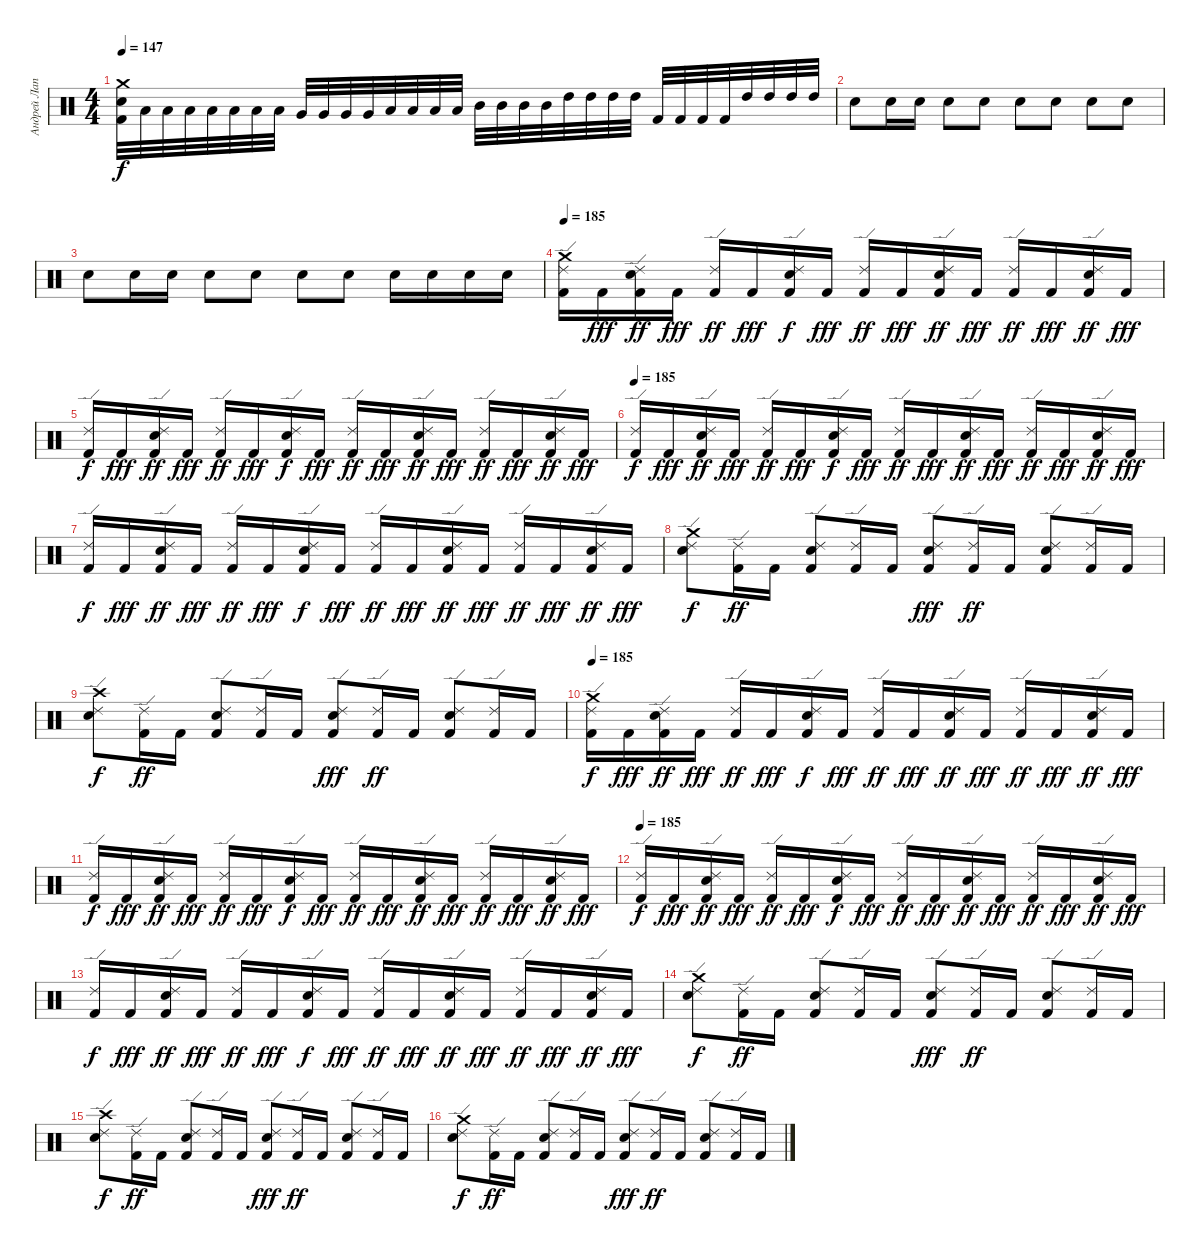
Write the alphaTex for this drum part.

\track ("Андрей Лаптев" "Андрей Лап") {instrument percussion}
\staff {score}
\articulation defaults
\ts (4 4)
\tempo 147
\clef neutral
\ks c
("Crash medium (hit)" "Electric Snare (hit)" "Kick (hit) 2").32{dy f} "Low Floor Tom (hit)".32 "Low Floor Tom (hit)".32 "Low Floor Tom (hit)".32 "Low Floor Tom (hit)".32 "Low Floor Tom (hit)".32 "Low Floor Tom (hit)".32 "Low Floor Tom (hit)".32 "Very Low Tom (hit)".32 "Very Low Tom (hit)".32 "Very Low Tom (hit)".32 "Very Low Tom (hit)".32 "Low Tom (hit)".32 "Low Tom (hit)".32 "Low Tom (hit)".32 "Low Tom (hit)".32 "Mid Tom (hit)".32 "Mid Tom (hit)".32 "Mid Tom (hit)".32 "Mid Tom (hit)".32 "High Tom (hit)".32 "High Tom (hit)".32 "High Tom (hit)".32 "High Tom (hit)".32 "Kick (hit) 2".32 "Kick (hit) 2".32 "Kick (hit) 2".32 "Kick (hit) 2".32 "High Tom (hit)".32 "High Tom (hit)".32 "High Tom (hit)".32 "High Tom (hit)".32 |
"Electric Snare (hit)".8 "Electric Snare (hit)".16 "Electric Snare (hit)".16 "Electric Snare (hit)".8 "Electric Snare (hit)".8 "Electric Snare (hit)".8 "Electric Snare (hit)".8 "Electric Snare (hit)".8 "Electric Snare (hit)".8 |
"Electric Snare (hit)".8 "Electric Snare (hit)".16 "Electric Snare (hit)".16 "Electric Snare (hit)".8 "Electric Snare (hit)".8 "Electric Snare (hit)".8 "Electric Snare (hit)".8 "Electric Snare (hit)".16 "Electric Snare (hit)".16 "Electric Snare (hit)".16 "Electric Snare (hit)".16 |
\tempo 185
("Kick (hit) 2" "Crash medium (hit)" "Ride (edge) 2").16 "Kick (hit) 2".16{dy fff} ("Kick (hit) 2" "Electric Snare (hit)" "Ride (edge) 2").16{dy ff} "Kick (hit) 2".16{dy fff} ("Kick (hit) 2" "Ride (edge) 2").16{dy ff} "Kick (hit) 2".16{dy fff} ("Kick (hit) 2" "Electric Snare (hit)" "Ride (edge) 2").16{dy f} "Kick (hit) 2".16{dy fff} ("Kick (hit) 2" "Ride (edge) 2").16{dy ff} "Kick (hit) 2".16{dy fff} ("Kick (hit) 2" "Electric Snare (hit)" "Ride (edge) 2").16{dy ff} "Kick (hit) 2".16{dy fff} ("Kick (hit) 2" "Ride (edge) 2").16{dy ff} "Kick (hit) 2".16{dy fff} ("Kick (hit) 2" "Electric Snare (hit)" "Ride (edge) 2").16{dy ff} "Kick (hit) 2".16{dy fff} |
("Kick (hit) 2" "Ride (edge) 2").16{dy f} "Kick (hit) 2".16{dy fff} ("Kick (hit) 2" "Electric Snare (hit)" "Ride (edge) 2").16{dy ff} "Kick (hit) 2".16{dy fff} ("Kick (hit) 2" "Ride (edge) 2").16{dy ff} "Kick (hit) 2".16{dy fff} ("Kick (hit) 2" "Electric Snare (hit)" "Ride (edge) 2").16{dy f} "Kick (hit) 2".16{dy fff} ("Kick (hit) 2" "Ride (edge) 2").16{dy ff} "Kick (hit) 2".16{dy fff} ("Kick (hit) 2" "Electric Snare (hit)" "Ride (edge) 2").16{dy ff} "Kick (hit) 2".16{dy fff} ("Kick (hit) 2" "Ride (edge) 2").16{dy ff} "Kick (hit) 2".16{dy fff} ("Kick (hit) 2" "Electric Snare (hit)" "Ride (edge) 2").16{dy ff} "Kick (hit) 2".16{dy fff} |
\tempo 185
("Kick (hit) 2" "Ride (edge) 2").16{dy f} "Kick (hit) 2".16{dy fff} ("Kick (hit) 2" "Electric Snare (hit)" "Ride (edge) 2").16{dy ff} "Kick (hit) 2".16{dy fff} ("Kick (hit) 2" "Ride (edge) 2").16{dy ff} "Kick (hit) 2".16{dy fff} ("Kick (hit) 2" "Electric Snare (hit)" "Ride (edge) 2").16{dy f} "Kick (hit) 2".16{dy fff} ("Kick (hit) 2" "Ride (edge) 2").16{dy ff} "Kick (hit) 2".16{dy fff} ("Kick (hit) 2" "Electric Snare (hit)" "Ride (edge) 2").16{dy ff} "Kick (hit) 2".16{dy fff} ("Kick (hit) 2" "Ride (edge) 2").16{dy ff} "Kick (hit) 2".16{dy fff} ("Kick (hit) 2" "Electric Snare (hit)" "Ride (edge) 2").16{dy ff} "Kick (hit) 2".16{dy fff} |
("Kick (hit) 2" "Ride (edge) 2").16{dy f} "Kick (hit) 2".16{dy fff} ("Kick (hit) 2" "Electric Snare (hit)" "Ride (edge) 2").16{dy ff} "Kick (hit) 2".16{dy fff} ("Kick (hit) 2" "Ride (edge) 2").16{dy ff} "Kick (hit) 2".16{dy fff} ("Kick (hit) 2" "Electric Snare (hit)" "Ride (edge) 2").16{dy f} "Kick (hit) 2".16{dy fff} ("Kick (hit) 2" "Ride (edge) 2").16{dy ff} "Kick (hit) 2".16{dy fff} ("Kick (hit) 2" "Electric Snare (hit)" "Ride (edge) 2").16{dy ff} "Kick (hit) 2".16{dy fff} ("Kick (hit) 2" "Ride (edge) 2").16{dy ff} "Kick (hit) 2".16{dy fff} ("Kick (hit) 2" "Electric Snare (hit)" "Ride (edge) 2").16{dy ff} "Kick (hit) 2".16{dy fff} |
("Ride (edge) 2" "Crash medium (hit)" "Electric Snare (hit)").8{dy f} ("Kick (hit) 2" "Ride (edge) 2").16{dy ff} "Kick (hit) 2".16 ("Kick (hit) 2" "Electric Snare (hit)" "Ride (edge) 2").8 ("Kick (hit) 2" "Ride (edge) 2").16 "Kick (hit) 2".16 ("Kick (hit) 2" "Ride (edge) 2" "Electric Snare (hit)").8{dy fff} ("Kick (hit) 2" "Ride (edge) 2").16{dy ff} "Kick (hit) 2".16 ("Ride (edge) 2" "Electric Snare (hit)" "Kick (hit) 2").8 ("Kick (hit) 2" "Ride (edge) 2").16 "Kick (hit) 2".16 |
("Ride (edge) 2" "Crash high (hit)" "Electric Snare (hit)").8{dy f} ("Kick (hit) 2" "Ride (edge) 2").16{dy ff} "Kick (hit) 2".16 ("Kick (hit) 2" "Electric Snare (hit)" "Ride (edge) 2").8 ("Kick (hit) 2" "Ride (edge) 2").16 "Kick (hit) 2".16 ("Kick (hit) 2" "Ride (edge) 2" "Electric Snare (hit)").8{dy fff} ("Kick (hit) 2" "Ride (edge) 2").16{dy ff} "Kick (hit) 2".16 ("Ride (edge) 2" "Electric Snare (hit)" "Kick (hit) 2").8 ("Kick (hit) 2" "Ride (edge) 2").16 "Kick (hit) 2".16 |
\tempo 185
("Kick (hit) 2" "Crash medium (hit)" "Ride (edge) 2").16{dy f} "Kick (hit) 2".16{dy fff} ("Kick (hit) 2" "Electric Snare (hit)" "Ride (edge) 2").16{dy ff} "Kick (hit) 2".16{dy fff} ("Kick (hit) 2" "Ride (edge) 2").16{dy ff} "Kick (hit) 2".16{dy fff} ("Kick (hit) 2" "Electric Snare (hit)" "Ride (edge) 2").16{dy f} "Kick (hit) 2".16{dy fff} ("Kick (hit) 2" "Ride (edge) 2").16{dy ff} "Kick (hit) 2".16{dy fff} ("Kick (hit) 2" "Electric Snare (hit)" "Ride (edge) 2").16{dy ff} "Kick (hit) 2".16{dy fff} ("Kick (hit) 2" "Ride (edge) 2").16{dy ff} "Kick (hit) 2".16{dy fff} ("Kick (hit) 2" "Electric Snare (hit)" "Ride (edge) 2").16{dy ff} "Kick (hit) 2".16{dy fff} |
("Kick (hit) 2" "Ride (edge) 2").16{dy f} "Kick (hit) 2".16{dy fff} ("Kick (hit) 2" "Electric Snare (hit)" "Ride (edge) 2").16{dy ff} "Kick (hit) 2".16{dy fff} ("Kick (hit) 2" "Ride (edge) 2").16{dy ff} "Kick (hit) 2".16{dy fff} ("Kick (hit) 2" "Electric Snare (hit)" "Ride (edge) 2").16{dy f} "Kick (hit) 2".16{dy fff} ("Kick (hit) 2" "Ride (edge) 2").16{dy ff} "Kick (hit) 2".16{dy fff} ("Kick (hit) 2" "Electric Snare (hit)" "Ride (edge) 2").16{dy ff} "Kick (hit) 2".16{dy fff} ("Kick (hit) 2" "Ride (edge) 2").16{dy ff} "Kick (hit) 2".16{dy fff} ("Kick (hit) 2" "Electric Snare (hit)" "Ride (edge) 2").16{dy ff} "Kick (hit) 2".16{dy fff} |
\tempo 185
("Kick (hit) 2" "Ride (edge) 2").16{dy f} "Kick (hit) 2".16{dy fff} ("Kick (hit) 2" "Electric Snare (hit)" "Ride (edge) 2").16{dy ff} "Kick (hit) 2".16{dy fff} ("Kick (hit) 2" "Ride (edge) 2").16{dy ff} "Kick (hit) 2".16{dy fff} ("Kick (hit) 2" "Electric Snare (hit)" "Ride (edge) 2").16{dy f} "Kick (hit) 2".16{dy fff} ("Kick (hit) 2" "Ride (edge) 2").16{dy ff} "Kick (hit) 2".16{dy fff} ("Kick (hit) 2" "Electric Snare (hit)" "Ride (edge) 2").16{dy ff} "Kick (hit) 2".16{dy fff} ("Kick (hit) 2" "Ride (edge) 2").16{dy ff} "Kick (hit) 2".16{dy fff} ("Kick (hit) 2" "Electric Snare (hit)" "Ride (edge) 2").16{dy ff} "Kick (hit) 2".16{dy fff} |
("Kick (hit) 2" "Ride (edge) 2").16{dy f} "Kick (hit) 2".16{dy fff} ("Kick (hit) 2" "Electric Snare (hit)" "Ride (edge) 2").16{dy ff} "Kick (hit) 2".16{dy fff} ("Kick (hit) 2" "Ride (edge) 2").16{dy ff} "Kick (hit) 2".16{dy fff} ("Kick (hit) 2" "Electric Snare (hit)" "Ride (edge) 2").16{dy f} "Kick (hit) 2".16{dy fff} ("Kick (hit) 2" "Ride (edge) 2").16{dy ff} "Kick (hit) 2".16{dy fff} ("Kick (hit) 2" "Electric Snare (hit)" "Ride (edge) 2").16{dy ff} "Kick (hit) 2".16{dy fff} ("Kick (hit) 2" "Ride (edge) 2").16{dy ff} "Kick (hit) 2".16{dy fff} ("Kick (hit) 2" "Electric Snare (hit)" "Ride (edge) 2").16{dy ff} "Kick (hit) 2".16{dy fff} |
("Ride (edge) 2" "Crash medium (hit)" "Electric Snare (hit)").8{dy f} ("Kick (hit) 2" "Ride (edge) 2").16{dy ff} "Kick (hit) 2".16 ("Kick (hit) 2" "Electric Snare (hit)" "Ride (edge) 2").8 ("Kick (hit) 2" "Ride (edge) 2").16 "Kick (hit) 2".16 ("Kick (hit) 2" "Ride (edge) 2" "Electric Snare (hit)").8{dy fff} ("Kick (hit) 2" "Ride (edge) 2").16{dy ff} "Kick (hit) 2".16 ("Ride (edge) 2" "Electric Snare (hit)" "Kick (hit) 2").8 ("Kick (hit) 2" "Ride (edge) 2").16 "Kick (hit) 2".16 |
("Ride (edge) 2" "Crash high (hit)" "Electric Snare (hit)").8{dy f} ("Kick (hit) 2" "Ride (edge) 2").16{dy ff} "Kick (hit) 2".16 ("Kick (hit) 2" "Electric Snare (hit)" "Ride (edge) 2").8 ("Kick (hit) 2" "Ride (edge) 2").16 "Kick (hit) 2".16 ("Kick (hit) 2" "Ride (edge) 2" "Electric Snare (hit)").8{dy fff} ("Kick (hit) 2" "Ride (edge) 2").16{dy ff} "Kick (hit) 2".16 ("Ride (edge) 2" "Electric Snare (hit)" "Kick (hit) 2").8 ("Kick (hit) 2" "Ride (edge) 2").16 "Kick (hit) 2".16 |
("Ride (edge) 2" "Crash medium (hit)" "Electric Snare (hit)").8{dy f} ("Kick (hit) 2" "Ride (edge) 2").16{dy ff} "Kick (hit) 2".16 ("Kick (hit) 2" "Electric Snare (hit)" "Ride (edge) 2").8 ("Kick (hit) 2" "Ride (edge) 2").16 "Kick (hit) 2".16 ("Kick (hit) 2" "Ride (edge) 2" "Electric Snare (hit)").8{dy fff} ("Kick (hit) 2" "Ride (edge) 2").16{dy ff} "Kick (hit) 2".16 ("Ride (edge) 2" "Electric Snare (hit)" "Kick (hit) 2").8 ("Kick (hit) 2" "Ride (edge) 2").16 "Kick (hit) 2".16
